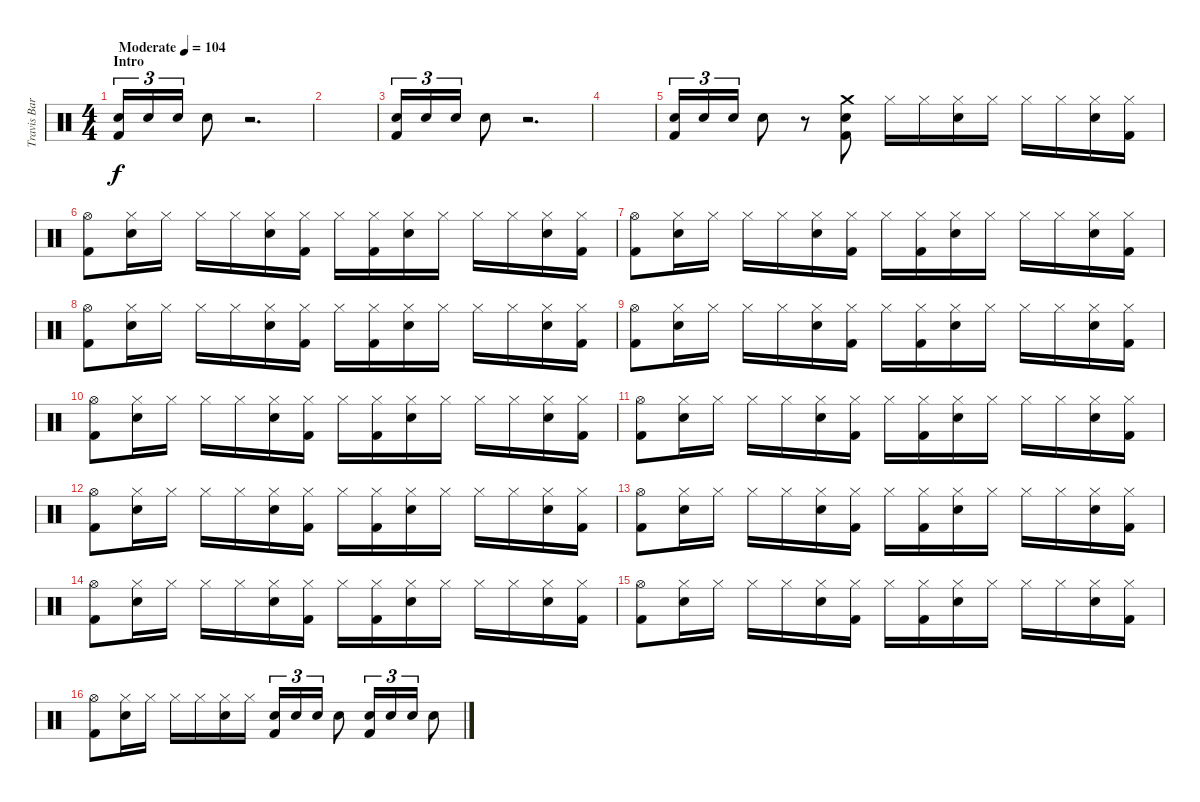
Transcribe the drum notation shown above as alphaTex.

\track ("Travis Barker - Drums" "Travis Bar") {instrument percussion}
\staff {score}
\articulation defaults
\ts (4 4)
\section ("" "Intro")
\tempo (104 "Moderate")
\clef neutral
\ks c
("Electric Snare (hit)" "Kick (hit) 2").16{tu (3 2) dy f} "Electric Snare (hit)".16{tu (3 2)} "Electric Snare (hit)".16{tu (3 2)} "Electric Snare (hit)".8 r.2{d} |
|
("Electric Snare (hit)" "Kick (hit) 2").16{tu (3 2)} "Electric Snare (hit)".16{tu (3 2)} "Electric Snare (hit)".16{tu (3 2)} "Electric Snare (hit)".8 r.2{d} |
|
("Electric Snare (hit)" "Kick (hit) 2").16{tu (3 2)} "Electric Snare (hit)".16{tu (3 2)} "Electric Snare (hit)".16{tu (3 2)} "Electric Snare (hit)".8 r.8 ("Crash medium (hit)" "Electric Snare (hit)" "Kick (hit) 2").8 "Hi-Hat (closed)".16 "Hi-Hat (closed)".16 ("Hi-Hat (closed)" "Electric Snare (hit)").16 "Hi-Hat (closed)".16 "Hi-Hat (closed)".16 "Hi-Hat (closed)".16 ("Hi-Hat (closed)" "Electric Snare (hit)").16 ("Hi-Hat (closed)" "Kick (hit) 2").16 |
("Hi-Hat (open)" "Kick (hit) 2").8 ("Hi-Hat (closed)" "Electric Snare (hit)").16 "Hi-Hat (closed)".16 "Hi-Hat (closed)".16 "Hi-Hat (closed)".16 ("Hi-Hat (closed)" "Electric Snare (hit)").16 ("Hi-Hat (closed)" "Kick (hit) 2").16 "Hi-Hat (closed)".16 ("Hi-Hat (closed)" "Kick (hit) 2").16 ("Hi-Hat (closed)" "Electric Snare (hit)").16 "Hi-Hat (closed)".16 "Hi-Hat (closed)".16 "Hi-Hat (closed)".16 ("Hi-Hat (closed)" "Electric Snare (hit)").16 ("Hi-Hat (closed)" "Kick (hit) 2").16 |
("Hi-Hat (open)" "Kick (hit) 2").8 ("Hi-Hat (closed)" "Electric Snare (hit)").16 "Hi-Hat (closed)".16 "Hi-Hat (closed)".16 "Hi-Hat (closed)".16 ("Hi-Hat (closed)" "Electric Snare (hit)").16 ("Hi-Hat (closed)" "Kick (hit) 2").16 "Hi-Hat (closed)".16 ("Hi-Hat (closed)" "Kick (hit) 2").16 ("Hi-Hat (closed)" "Electric Snare (hit)").16 "Hi-Hat (closed)".16 "Hi-Hat (closed)".16 "Hi-Hat (closed)".16 ("Hi-Hat (closed)" "Electric Snare (hit)").16 ("Hi-Hat (closed)" "Kick (hit) 2").16 |
("Hi-Hat (open)" "Kick (hit) 2").8 ("Hi-Hat (closed)" "Electric Snare (hit)").16 "Hi-Hat (closed)".16 "Hi-Hat (closed)".16 "Hi-Hat (closed)".16 ("Hi-Hat (closed)" "Electric Snare (hit)").16 ("Hi-Hat (closed)" "Kick (hit) 2").16 "Hi-Hat (closed)".16 ("Hi-Hat (closed)" "Kick (hit) 2").16 ("Hi-Hat (closed)" "Electric Snare (hit)").16 "Hi-Hat (closed)".16 "Hi-Hat (closed)".16 "Hi-Hat (closed)".16 ("Hi-Hat (closed)" "Electric Snare (hit)").16 ("Hi-Hat (closed)" "Kick (hit) 2").16 |
("Hi-Hat (open)" "Kick (hit) 2").8 ("Hi-Hat (closed)" "Electric Snare (hit)").16 "Hi-Hat (closed)".16 "Hi-Hat (closed)".16 "Hi-Hat (closed)".16 ("Hi-Hat (closed)" "Electric Snare (hit)").16 ("Hi-Hat (closed)" "Kick (hit) 2").16 "Hi-Hat (closed)".16 ("Hi-Hat (closed)" "Kick (hit) 2").16 ("Hi-Hat (closed)" "Electric Snare (hit)").16 "Hi-Hat (closed)".16 "Hi-Hat (closed)".16 "Hi-Hat (closed)".16 ("Hi-Hat (closed)" "Electric Snare (hit)").16 ("Hi-Hat (closed)" "Kick (hit) 2").16 |
("Hi-Hat (open)" "Kick (hit) 2").8 ("Hi-Hat (closed)" "Electric Snare (hit)").16 "Hi-Hat (closed)".16 "Hi-Hat (closed)".16 "Hi-Hat (closed)".16 ("Hi-Hat (closed)" "Electric Snare (hit)").16 ("Hi-Hat (closed)" "Kick (hit) 2").16 "Hi-Hat (closed)".16 ("Hi-Hat (closed)" "Kick (hit) 2").16 ("Hi-Hat (closed)" "Electric Snare (hit)").16 "Hi-Hat (closed)".16 "Hi-Hat (closed)".16 "Hi-Hat (closed)".16 ("Hi-Hat (closed)" "Electric Snare (hit)").16 ("Hi-Hat (closed)" "Kick (hit) 2").16 |
("Hi-Hat (open)" "Kick (hit) 2").8 ("Hi-Hat (closed)" "Electric Snare (hit)").16 "Hi-Hat (closed)".16 "Hi-Hat (closed)".16 "Hi-Hat (closed)".16 ("Hi-Hat (closed)" "Electric Snare (hit)").16 ("Hi-Hat (closed)" "Kick (hit) 2").16 "Hi-Hat (closed)".16 ("Hi-Hat (closed)" "Kick (hit) 2").16 ("Hi-Hat (closed)" "Electric Snare (hit)").16 "Hi-Hat (closed)".16 "Hi-Hat (closed)".16 "Hi-Hat (closed)".16 ("Hi-Hat (closed)" "Electric Snare (hit)").16 ("Hi-Hat (closed)" "Kick (hit) 2").16 |
("Hi-Hat (open)" "Kick (hit) 2").8 ("Hi-Hat (closed)" "Electric Snare (hit)").16 "Hi-Hat (closed)".16 "Hi-Hat (closed)".16 "Hi-Hat (closed)".16 ("Hi-Hat (closed)" "Electric Snare (hit)").16 ("Hi-Hat (closed)" "Kick (hit) 2").16 "Hi-Hat (closed)".16 ("Hi-Hat (closed)" "Kick (hit) 2").16 ("Hi-Hat (closed)" "Electric Snare (hit)").16 "Hi-Hat (closed)".16 "Hi-Hat (closed)".16 "Hi-Hat (closed)".16 ("Hi-Hat (closed)" "Electric Snare (hit)").16 ("Hi-Hat (closed)" "Kick (hit) 2").16 |
("Hi-Hat (open)" "Kick (hit) 2").8 ("Hi-Hat (closed)" "Electric Snare (hit)").16 "Hi-Hat (closed)".16 "Hi-Hat (closed)".16 "Hi-Hat (closed)".16 ("Hi-Hat (closed)" "Electric Snare (hit)").16 ("Hi-Hat (closed)" "Kick (hit) 2").16 "Hi-Hat (closed)".16 ("Hi-Hat (closed)" "Kick (hit) 2").16 ("Hi-Hat (closed)" "Electric Snare (hit)").16 "Hi-Hat (closed)".16 "Hi-Hat (closed)".16 "Hi-Hat (closed)".16 ("Hi-Hat (closed)" "Electric Snare (hit)").16 ("Hi-Hat (closed)" "Kick (hit) 2").16 |
("Hi-Hat (open)" "Kick (hit) 2").8 ("Hi-Hat (closed)" "Electric Snare (hit)").16 "Hi-Hat (closed)".16 "Hi-Hat (closed)".16 "Hi-Hat (closed)".16 ("Hi-Hat (closed)" "Electric Snare (hit)").16 ("Hi-Hat (closed)" "Kick (hit) 2").16 "Hi-Hat (closed)".16 ("Hi-Hat (closed)" "Kick (hit) 2").16 ("Hi-Hat (closed)" "Electric Snare (hit)").16 "Hi-Hat (closed)".16 "Hi-Hat (closed)".16 "Hi-Hat (closed)".16 ("Hi-Hat (closed)" "Electric Snare (hit)").16 ("Hi-Hat (closed)" "Kick (hit) 2").16 |
("Hi-Hat (open)" "Kick (hit) 2").8 ("Hi-Hat (closed)" "Electric Snare (hit)").16 "Hi-Hat (closed)".16 "Hi-Hat (closed)".16 "Hi-Hat (closed)".16 ("Hi-Hat (closed)" "Electric Snare (hit)").16 ("Hi-Hat (closed)" "Kick (hit) 2").16 "Hi-Hat (closed)".16 ("Hi-Hat (closed)" "Kick (hit) 2").16 ("Hi-Hat (closed)" "Electric Snare (hit)").16 "Hi-Hat (closed)".16 "Hi-Hat (closed)".16 "Hi-Hat (closed)".16 ("Hi-Hat (closed)" "Electric Snare (hit)").16 ("Hi-Hat (closed)" "Kick (hit) 2").16 |
("Hi-Hat (open)" "Kick (hit) 2").8 ("Hi-Hat (closed)" "Electric Snare (hit)").16 "Hi-Hat (closed)".16 "Hi-Hat (closed)".16 "Hi-Hat (closed)".16 ("Hi-Hat (closed)" "Electric Snare (hit)").16 "Hi-Hat (closed)".16 ("Electric Snare (hit)" "Kick (hit) 2").16{tu (3 2)} "Electric Snare (hit)".16{tu (3 2)} "Electric Snare (hit)".16{tu (3 2)} "Electric Snare (hit)".8 ("Electric Snare (hit)" "Kick (hit) 2").16{tu (3 2)} "Electric Snare (hit)".16{tu (3 2)} "Electric Snare (hit)".16{tu (3 2)} "Electric Snare (hit)".8
